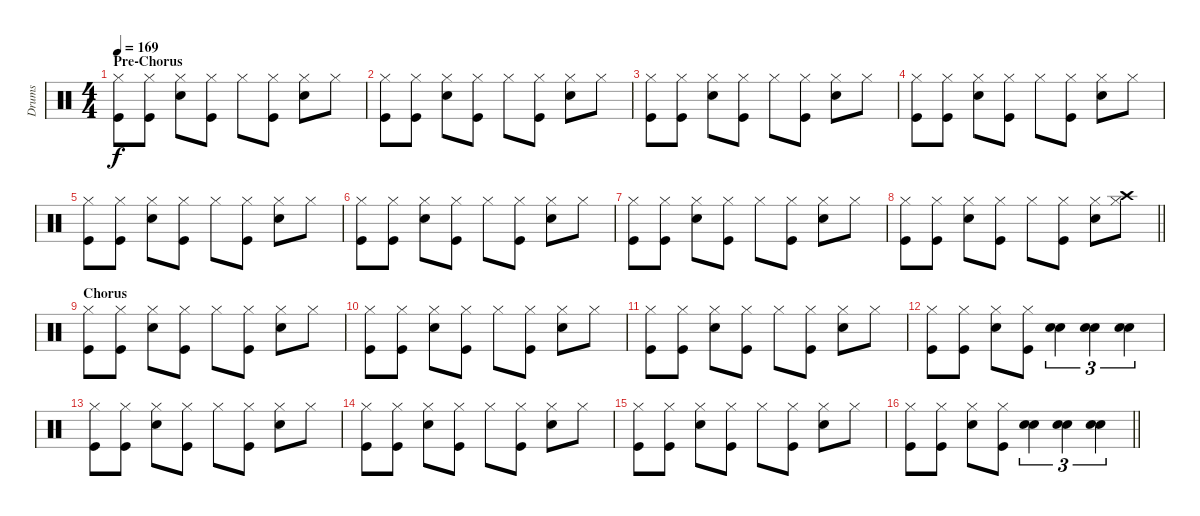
\track ("Drums" "Drums") {instrument percussion}
\staff {score}
\articulation defaults
\ts (4 4)
\section ("" "Pre-Chorus")
\tempo 169
\clef neutral
\ks c
("Hi-Hat (closed)" "Kick (hit)").8{dy f} ("Hi-Hat (closed)" "Kick (hit)").8 ("Hi-Hat (closed)" "Snare (hit) 2").8 ("Hi-Hat (closed)" "Kick (hit)").8 "Hi-Hat (closed)".8 ("Hi-Hat (closed)" "Kick (hit)").8 ("Hi-Hat (closed)" "Snare (hit) 2").8 "Hi-Hat (closed)".8 |
("Hi-Hat (closed)" "Kick (hit)").8 ("Hi-Hat (closed)" "Kick (hit)").8 ("Hi-Hat (closed)" "Snare (hit) 2").8 ("Hi-Hat (closed)" "Kick (hit)").8 "Hi-Hat (closed)".8 ("Hi-Hat (closed)" "Kick (hit)").8 ("Hi-Hat (closed)" "Snare (hit) 2").8 "Hi-Hat (closed)".8 |
("Hi-Hat (closed)" "Kick (hit)").8 ("Hi-Hat (closed)" "Kick (hit)").8 ("Hi-Hat (closed)" "Snare (hit) 2").8 ("Hi-Hat (closed)" "Kick (hit)").8 "Hi-Hat (closed)".8 ("Hi-Hat (closed)" "Kick (hit)").8 ("Hi-Hat (closed)" "Snare (hit) 2").8 "Hi-Hat (closed)".8 |
("Hi-Hat (closed)" "Kick (hit)").8 ("Hi-Hat (closed)" "Kick (hit)").8 ("Hi-Hat (closed)" "Snare (hit) 2").8 ("Hi-Hat (closed)" "Kick (hit)").8 "Hi-Hat (closed)".8 ("Hi-Hat (closed)" "Kick (hit)").8 ("Hi-Hat (closed)" "Snare (hit) 2").8 "Hi-Hat (closed)".8 |
("Hi-Hat (closed)" "Kick (hit)").8 ("Hi-Hat (closed)" "Kick (hit)").8 ("Hi-Hat (closed)" "Snare (hit) 2").8 ("Hi-Hat (closed)" "Kick (hit)").8 "Hi-Hat (closed)".8 ("Hi-Hat (closed)" "Kick (hit)").8 ("Hi-Hat (closed)" "Snare (hit) 2").8 "Hi-Hat (closed)".8 |
("Hi-Hat (closed)" "Kick (hit)").8 ("Hi-Hat (closed)" "Kick (hit)").8 ("Hi-Hat (closed)" "Snare (hit) 2").8 ("Hi-Hat (closed)" "Kick (hit)").8 "Hi-Hat (closed)".8 ("Hi-Hat (closed)" "Kick (hit)").8 ("Hi-Hat (closed)" "Snare (hit) 2").8 "Hi-Hat (closed)".8 |
("Hi-Hat (closed)" "Kick (hit)").8 ("Hi-Hat (closed)" "Kick (hit)").8 ("Hi-Hat (closed)" "Snare (hit) 2").8 ("Hi-Hat (closed)" "Kick (hit)").8 "Hi-Hat (closed)".8 ("Hi-Hat (closed)" "Kick (hit)").8 ("Hi-Hat (closed)" "Snare (hit) 2").8 "Hi-Hat (closed)".8 |
\barLineRight lightlight
("Hi-Hat (closed)" "Kick (hit)").8 ("Hi-Hat (closed)" "Kick (hit)").8 ("Hi-Hat (closed)" "Snare (hit) 2").8 ("Hi-Hat (closed)" "Kick (hit)").8 "Hi-Hat (closed)".8 ("Hi-Hat (closed)" "Kick (hit)").8 ("Hi-Hat (closed)" "Snare (hit) 2").8 ("Hi-Hat (closed)" "Crash high (hit)").8 |
\section ("" "Chorus")
("Hi-Hat (closed)" "Kick (hit)").8 ("Hi-Hat (closed)" "Kick (hit)").8 ("Hi-Hat (closed)" "Snare (hit) 2").8 ("Hi-Hat (closed)" "Kick (hit)").8 "Hi-Hat (closed)".8 ("Hi-Hat (closed)" "Kick (hit)").8 ("Hi-Hat (closed)" "Snare (hit) 2").8 "Hi-Hat (closed)".8 |
("Hi-Hat (closed)" "Kick (hit)").8 ("Hi-Hat (closed)" "Kick (hit)").8 ("Hi-Hat (closed)" "Snare (hit) 2").8 ("Hi-Hat (closed)" "Kick (hit)").8 "Hi-Hat (closed)".8 ("Hi-Hat (closed)" "Kick (hit)").8 ("Hi-Hat (closed)" "Snare (hit) 2").8 "Hi-Hat (closed)".8 |
("Hi-Hat (closed)" "Kick (hit)").8 ("Hi-Hat (closed)" "Kick (hit)").8 ("Hi-Hat (closed)" "Snare (hit) 2").8 ("Hi-Hat (closed)" "Kick (hit)").8 "Hi-Hat (closed)".8 ("Hi-Hat (closed)" "Kick (hit)").8 ("Hi-Hat (closed)" "Snare (hit) 2").8 "Hi-Hat (closed)".8 |
("Hi-Hat (closed)" "Kick (hit)").8 ("Hi-Hat (closed)" "Kick (hit)").8 ("Hi-Hat (closed)" "Snare (hit) 2").8 ("Hi-Hat (closed)" "Kick (hit)").8 ("Snare (hit) 2" "Snare (hit) 2").4{tu (3 2)} ("Snare (hit) 2" "Snare (hit) 2").4{tu (3 2)} ("Snare (hit) 2" "Snare (hit) 2").4{tu (3 2)} |
("Hi-Hat (closed)" "Kick (hit)").8 ("Hi-Hat (closed)" "Kick (hit)").8 ("Hi-Hat (closed)" "Snare (hit) 2").8 ("Hi-Hat (closed)" "Kick (hit)").8 "Hi-Hat (closed)".8 ("Hi-Hat (closed)" "Kick (hit)").8 ("Hi-Hat (closed)" "Snare (hit) 2").8 "Hi-Hat (closed)".8 |
("Hi-Hat (closed)" "Kick (hit)").8 ("Hi-Hat (closed)" "Kick (hit)").8 ("Hi-Hat (closed)" "Snare (hit) 2").8 ("Hi-Hat (closed)" "Kick (hit)").8 "Hi-Hat (closed)".8 ("Hi-Hat (closed)" "Kick (hit)").8 ("Hi-Hat (closed)" "Snare (hit) 2").8 "Hi-Hat (closed)".8 |
("Hi-Hat (closed)" "Kick (hit)").8 ("Hi-Hat (closed)" "Kick (hit)").8 ("Hi-Hat (closed)" "Snare (hit) 2").8 ("Hi-Hat (closed)" "Kick (hit)").8 "Hi-Hat (closed)".8 ("Hi-Hat (closed)" "Kick (hit)").8 ("Hi-Hat (closed)" "Snare (hit) 2").8 "Hi-Hat (closed)".8 |
\barLineRight lightlight
("Hi-Hat (closed)" "Kick (hit)").8 ("Hi-Hat (closed)" "Kick (hit)").8 ("Hi-Hat (closed)" "Snare (hit) 2").8 ("Hi-Hat (closed)" "Kick (hit)").8 ("Snare (hit) 2" "Snare (hit) 2").4{tu (3 2)} ("Snare (hit) 2" "Snare (hit) 2").4{tu (3 2)} ("Snare (hit) 2" "Snare (hit) 2").4{tu (3 2)}
